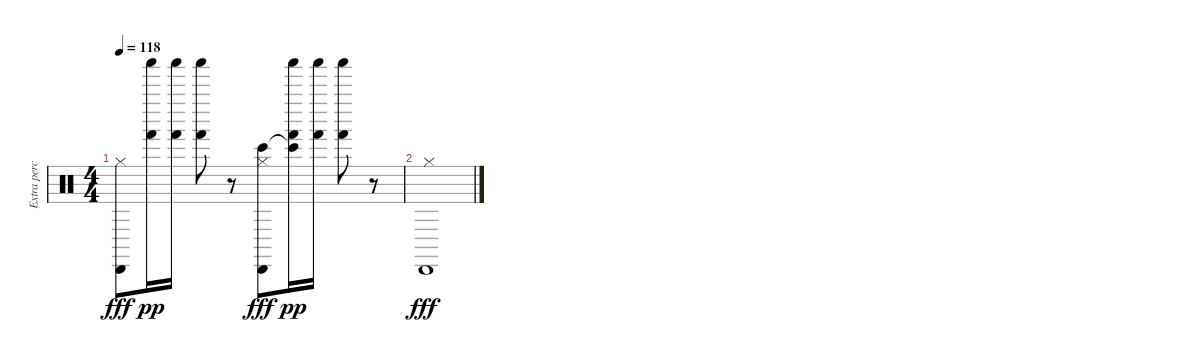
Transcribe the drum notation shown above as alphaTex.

\track ("Extra percussion" "Extra perc") {instrument percussion}
\staff {score}
\articulation defaults
\ts (4 4)
\tempo 118
\clef neutral
\ks c
("Cabasa (hit)" "Hi-Hat (closed)").8{dy fff} ("Shaker (hit)" "Hand (hit)").16{dy pp} ("Shaker (hit)" "Hand (hit)").16 ("Shaker (hit)" "Hand (hit)").8 r.8 ("Cabasa (hit)" "Hi-Hat (closed)" "Bongo High (hit)").8{dy fff} ("Shaker (hit)" "Hand (hit)" "Bongo High (hit)"{t}).16{dy pp} ("Shaker (hit)" "Hand (hit)").16 ("Shaker (hit)" "Hand (hit)").8 r.8 |
("Cabasa (hit)" "Hi-Hat (closed)").1{dy fff}
